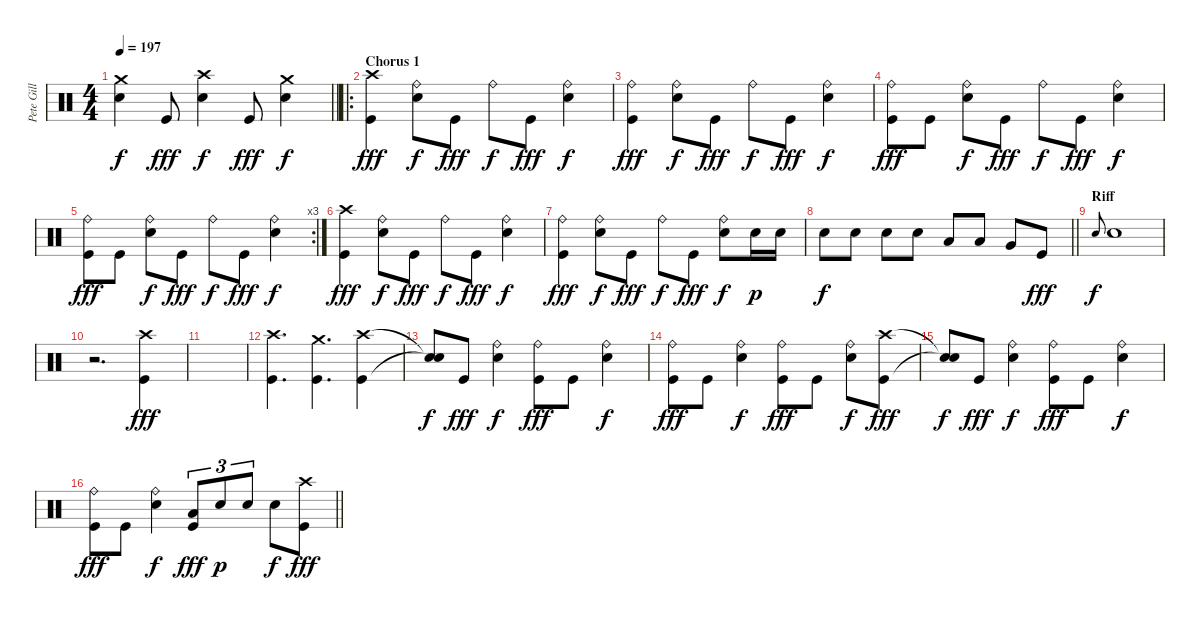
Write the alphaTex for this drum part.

\track ("Pete Gill" "Pete Gill") {instrument percussion}
\staff {score}
\articulation defaults
\ts (4 4)
\tempo 197
\clef neutral
\barLineRight lightlight
\ks c
("Crash medium (hit)" "Electric Snare (hit)").4{dy f} "Kick (hit)".8{dy fff} ("Crash high (hit)" "Electric Snare (hit)").4{dy f} "Kick (hit)".8{dy fff} ("Crash medium (hit)" "Electric Snare (hit)").4{dy f} |
\ro
\section ("" "Chorus 1")
("Crash high (hit)" "Kick (hit)").4{dy fff} ("Ride (bell)" "Electric Snare (hit)").8{dy f} "Kick (hit)".8{dy fff} "Ride (bell)".8{dy f} "Kick (hit)".8{dy fff} ("Ride (bell)" "Electric Snare (hit)").4{dy f} |
("Ride (bell)" "Kick (hit)").4{dy fff} ("Ride (bell)" "Electric Snare (hit)").8{dy f} "Kick (hit)".8{dy fff} "Ride (bell)".8{dy f} "Kick (hit)".8{dy fff} ("Ride (bell)" "Electric Snare (hit)").4{dy f} |
("Ride (bell)" "Kick (hit)").8{dy fff} "Kick (hit)".8 ("Ride (bell)" "Electric Snare (hit)").8{dy f} "Kick (hit)".8{dy fff} "Ride (bell)".8{dy f} "Kick (hit)".8{dy fff} ("Ride (bell)" "Electric Snare (hit)").4{dy f} |
\rc 3
("Ride (bell)" "Kick (hit)").8{dy fff} "Kick (hit)".8 ("Ride (bell)" "Electric Snare (hit)").8{dy f} "Kick (hit)".8{dy fff} "Ride (bell)".8{dy f} "Kick (hit)".8{dy fff} ("Ride (bell)" "Electric Snare (hit)").4{dy f} |
("Crash high (hit)" "Kick (hit)").4{dy fff} ("Ride (bell)" "Electric Snare (hit)").8{dy f} "Kick (hit)".8{dy fff} "Ride (bell)".8{dy f} "Kick (hit)".8{dy fff} ("Ride (bell)" "Electric Snare (hit)").4{dy f} |
("Ride (bell)" "Kick (hit)").4{dy fff} ("Ride (bell)" "Electric Snare (hit)").8{dy f} "Kick (hit)".8{dy fff} "Ride (bell)".8{dy f} "Kick (hit)".8{dy fff} ("Ride (bell)" "Electric Snare (hit)").8{dy f} "Electric Snare (hit)".16{dy p} "Electric Snare (hit)".16 |
\barLineRight lightlight "Electric Snare (hit)".8{dy f} "Electric Snare (hit)".8 "Electric Snare (hit)".8 "Electric Snare (hit)".8 "Low Tom (hit)".8 "Low Tom (hit)".8 "Very Low Tom (hit)".8 "Kick (hit)".8{dy fff}
|
\section ("" "Riff")
"Electric Snare (hit)".8{gr onbeat dy f} "Electric Snare (hit)".1 |
r.2{d} ("Crash high (hit)" "Kick (hit)").4{dy fff} |
|
("Crash high (hit)" "Kick (hit)").4{d} ("Crash medium (hit)" "Kick (hit)").4{d} ("Crash high (hit)" "Kick (hit)").4 |
("Snare (hit)"{t} "Snare (hit)"{t}).8{dy f} "Kick (hit)".8{dy fff} ("Ride (bell)" "Electric Snare (hit)").4{dy f} ("Ride (bell)" "Kick (hit)").8{dy fff} "Kick (hit)".8 ("Ride (bell)" "Electric Snare (hit)").4{dy f} |
("Ride (bell)" "Kick (hit)").8{dy fff} "Kick (hit)".8 ("Ride (bell)" "Electric Snare (hit)").4{dy f} ("Ride (bell)" "Kick (hit)").8{dy fff} "Kick (hit)".8 ("Ride (bell)" "Electric Snare (hit)").8{dy f} ("Crash high (hit)" "Kick (hit)").8{dy fff} |
("Snare (hit)"{t} "Snare (hit)"{t}).8{dy f} "Kick (hit)".8{dy fff} ("Ride (bell)" "Electric Snare (hit)").4{dy f} ("Ride (bell)" "Kick (hit)").8{dy fff} "Kick (hit)".8 ("Ride (bell)" "Electric Snare (hit)").4{dy f} |
\barLineRight lightlight
("Ride (bell)" "Kick (hit)").8{dy fff} "Kick (hit)".8 ("Ride (bell)" "Electric Snare (hit)").4{dy f} ("Low Tom (hit)" "Kick (hit)").8{tu (3 2) dy fff} "Electric Snare (hit)".8{tu (3 2) dy p} "Electric Snare (hit)".8{tu (3 2)} "Electric Snare (hit)".8{dy f} ("Crash high (hit)" "Kick (hit)").8{dy fff}
